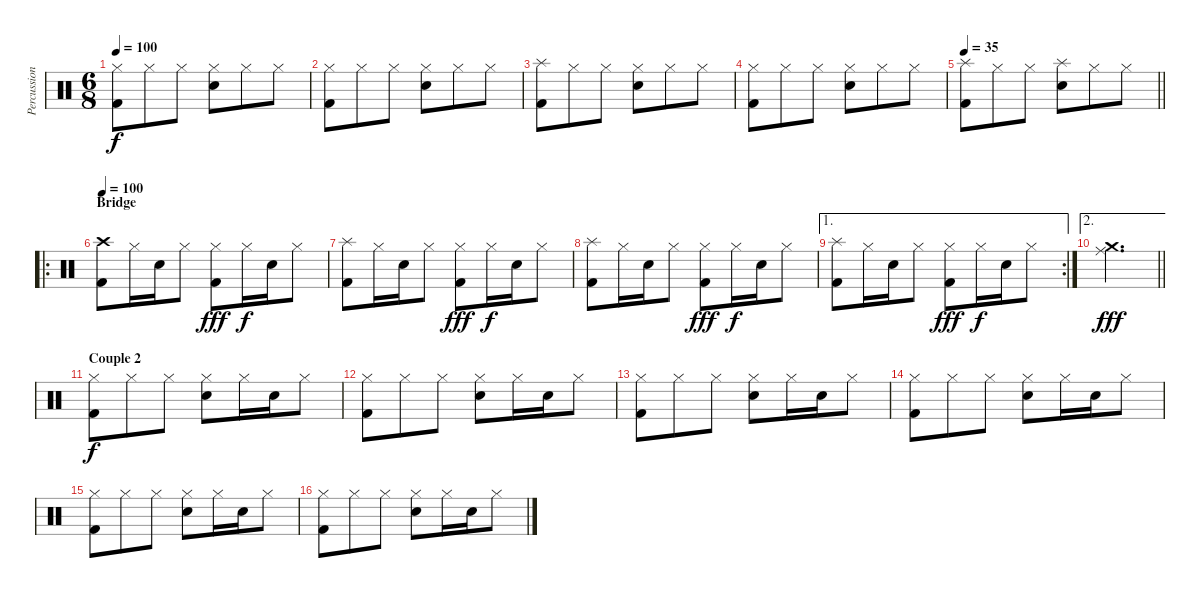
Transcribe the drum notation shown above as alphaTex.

\track ("Percussion" "Percussion") {instrument percussion}
\staff {score}
\articulation defaults
\ts (6 8)
\tempo 100
\clef neutral
\ks c
("Hi-Hat (closed)" "Kick (hit) 2").8{dy f} "Hi-Hat (closed)".8 "Hi-Hat (closed)".8 ("Hi-Hat (closed)" "Electric Snare (hit)").8 "Hi-Hat (closed)".8 "Hi-Hat (closed)".8 |
("Hi-Hat (closed)" "Kick (hit) 2").8 "Hi-Hat (closed)".8 "Hi-Hat (closed)".8 ("Hi-Hat (closed)" "Electric Snare (hit)").8 "Hi-Hat (closed)".8 "Hi-Hat (closed)".8 |
("Splash (hit)" "Kick (hit) 2").8 "Hi-Hat (closed)".8 "Hi-Hat (closed)".8 ("Hi-Hat (closed)" "Electric Snare (hit)").8 "Hi-Hat (closed)".8 "Hi-Hat (closed)".8 |
("Hi-Hat (closed)" "Kick (hit) 2").8 "Hi-Hat (closed)".8 "Hi-Hat (closed)".8 ("Hi-Hat (closed)" "Electric Snare (hit)").8 "Hi-Hat (closed)".8 "Hi-Hat (closed)".8 |
\tempo 35
\barLineRight lightlight
("Splash (hit)" "Kick (hit) 2").8 "Hi-Hat (closed)".8 "Hi-Hat (closed)".8 ("Splash (hit)" "Electric Snare (hit)").8 "Hi-Hat (closed)".8 "Hi-Hat (closed)".8 |
\ro
\section ("" "Bridge")
\tempo 100
("Crash high (hit)" "Kick (hit) 2").8 "Hi-Hat (closed)".16 "Snare (hit) 2".16 "Hi-Hat (closed)".8 ("Hi-Hat (closed)" "Kick (hit) 2").8{dy fff} "Hi-Hat (closed)".16{dy f} "Snare (hit) 2".16 "Hi-Hat (closed)".8 |
("Splash (hit)" "Kick (hit) 2").8 "Hi-Hat (closed)".16 "Snare (hit) 2".16 "Hi-Hat (closed)".8 ("Hi-Hat (closed)" "Kick (hit) 2").8{dy fff} "Hi-Hat (closed)".16{dy f} "Snare (hit) 2".16 "Hi-Hat (closed)".8 |
("Splash (hit)" "Kick (hit) 2").8 "Hi-Hat (closed)".16 "Snare (hit) 2".16 "Hi-Hat (closed)".8 ("Hi-Hat (closed)" "Kick (hit) 2").8{dy fff} "Hi-Hat (closed)".16{dy f} "Snare (hit) 2".16 "Hi-Hat (closed)".8 |
\ae 1
\rc 2
("Splash (hit)" "Kick (hit) 2").8 "Hi-Hat (closed)".16 "Snare (hit) 2".16 "Hi-Hat (closed)".8 ("Hi-Hat (closed)" "Kick (hit) 2").8{dy fff} "Hi-Hat (closed)".16{dy f} "Snare (hit) 2".16 "Hi-Hat (closed)".8 |
\ae 2
\barLineRight lightlight
("Ride (middle)" "Crash medium (hit)").2{d dy fff} |
\section ("" "Couple 2")
("Hi-Hat (closed)" "Kick (hit) 2").8{dy f} "Hi-Hat (closed)".8 "Hi-Hat (closed)".8 ("Hi-Hat (closed)" "Snare (hit) 2").8 "Hi-Hat (closed)".16 "Snare (hit) 2".16 "Hi-Hat (closed)".8 |
("Hi-Hat (closed)" "Kick (hit) 2").8 "Hi-Hat (closed)".8 "Hi-Hat (closed)".8 ("Hi-Hat (closed)" "Snare (hit) 2").8 "Hi-Hat (closed)".16 "Snare (hit) 2".16 "Hi-Hat (closed)".8 |
("Hi-Hat (closed)" "Kick (hit) 2").8 "Hi-Hat (closed)".8 "Hi-Hat (closed)".8 ("Hi-Hat (closed)" "Snare (hit) 2").8 "Hi-Hat (closed)".16 "Snare (hit) 2".16 "Hi-Hat (closed)".8 |
("Hi-Hat (closed)" "Kick (hit) 2").8 "Hi-Hat (closed)".8 "Hi-Hat (closed)".8 ("Hi-Hat (closed)" "Snare (hit) 2").8 "Hi-Hat (closed)".16 "Snare (hit) 2".16 "Hi-Hat (closed)".8 |
("Hi-Hat (closed)" "Kick (hit) 2").8 "Hi-Hat (closed)".8 "Hi-Hat (closed)".8 ("Hi-Hat (closed)" "Snare (hit) 2").8 "Hi-Hat (closed)".16 "Snare (hit) 2".16 "Hi-Hat (closed)".8 |
("Hi-Hat (closed)" "Kick (hit) 2").8 "Hi-Hat (closed)".8 "Hi-Hat (closed)".8 ("Hi-Hat (closed)" "Snare (hit) 2").8 "Hi-Hat (closed)".16 "Snare (hit) 2".16 "Hi-Hat (closed)".8
